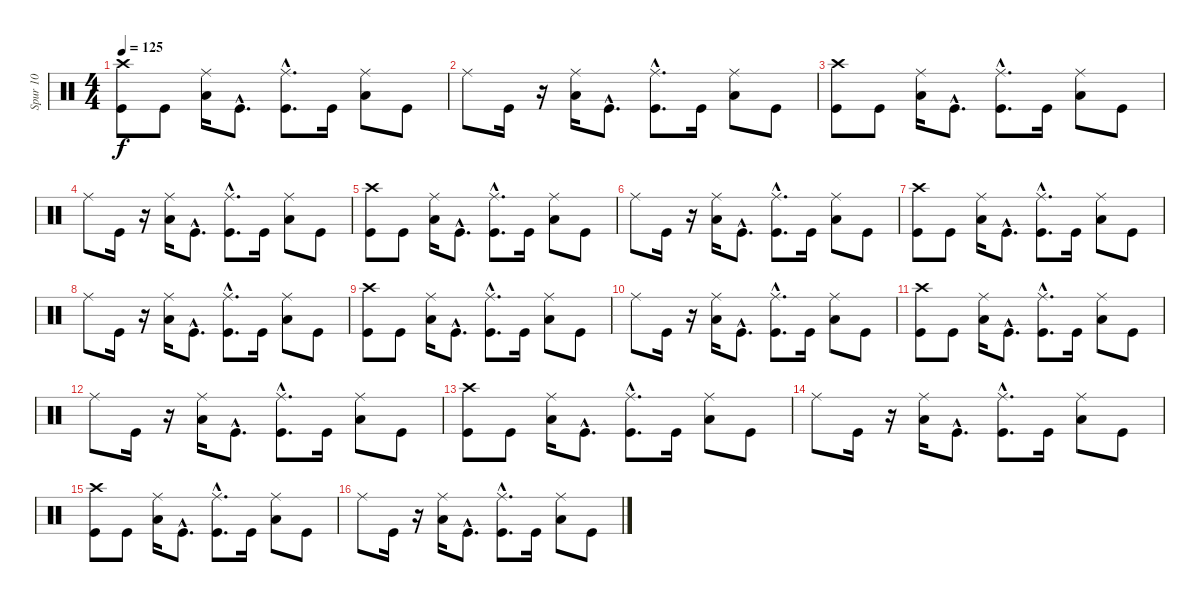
\track ("Spur 10" "Spur 10") {instrument percussion}
\staff {score}
\articulation defaults
\ts (4 4)
\tempo 125
\clef neutral
\ks c
("Crash high (hit)" "Kick (hit)").8{dy f} "Kick (hit)".8 ("Ride (middle)" "Low Tom (hit)").16 "Kick (hit)"{hac}.8{d} ("Kick (hit)"{hac} "Ride (middle)").8{d} "Kick (hit)".16 ("Ride (middle)" "Low Tom (hit)").8 "Kick (hit)".8 |
"Ride (middle)".8 "Kick (hit)".16 r.16 ("Low Tom (hit)" "Ride (middle)").16 "Kick (hit)"{hac}.8{d} ("Kick (hit)"{hac} "Ride (middle)").8{d} "Kick (hit)".16 ("Ride (middle)" "Low Tom (hit)").8 "Kick (hit)".8 |
("Kick (hit)" "Crash high (hit)").8 "Kick (hit)".8 ("Low Tom (hit)" "Ride (middle)").16 "Kick (hit)"{hac}.8{d} ("Ride (middle)" "Kick (hit)"{hac}).8{d} "Kick (hit)".16 ("Ride (middle)" "Low Tom (hit)").8 "Kick (hit)".8 |
"Ride (middle)".8 "Kick (hit)".16 r.16 ("Low Tom (hit)" "Ride (middle)").16 "Kick (hit)"{hac}.8{d} ("Kick (hit)"{hac} "Ride (middle)").8{d} "Kick (hit)".16 ("Low Tom (hit)" "Ride (middle)").8 "Kick (hit)".8 |
("Kick (hit)" "Crash high (hit)").8 "Kick (hit)".8 ("Low Tom (hit)" "Ride (middle)").16 "Kick (hit)"{hac}.8{d} ("Ride (middle)" "Kick (hit)"{hac}).8{d} "Kick (hit)".16 ("Ride (middle)" "Low Tom (hit)").8 "Kick (hit)".8 |
"Ride (middle)".8 "Kick (hit)".16 r.16 ("Ride (middle)" "Low Tom (hit)").16 "Kick (hit)"{hac}.8{d} ("Kick (hit)"{hac} "Ride (middle)").8{d} "Kick (hit)".16 ("Low Tom (hit)" "Ride (middle)").8 "Kick (hit)".8 |
("Crash high (hit)" "Kick (hit)").8 "Kick (hit)".8 ("Low Tom (hit)" "Ride (middle)").16 "Kick (hit)"{hac}.8{d} ("Ride (middle)" "Kick (hit)"{hac}).8{d} "Kick (hit)".16 ("Low Tom (hit)" "Ride (middle)").8 "Kick (hit)".8 |
"Ride (middle)".8 "Kick (hit)".16 r.16 ("Low Tom (hit)" "Ride (middle)").16 "Kick (hit)"{hac}.8{d} ("Kick (hit)"{hac} "Ride (middle)").8{d} "Kick (hit)".16 ("Low Tom (hit)" "Ride (middle)").8 "Kick (hit)".8 |
("Crash high (hit)" "Kick (hit)").8 "Kick (hit)".8 ("Ride (middle)" "Low Tom (hit)").16 "Kick (hit)"{hac}.8{d} ("Kick (hit)"{hac} "Ride (middle)").8{d} "Kick (hit)".16 ("Low Tom (hit)" "Ride (middle)").8 "Kick (hit)".8 |
"Ride (middle)".8 "Kick (hit)".16 r.16 ("Ride (middle)" "Low Tom (hit)").16 "Kick (hit)"{hac}.8{d} ("Kick (hit)"{hac} "Ride (middle)").8{d} "Kick (hit)".16 ("Low Tom (hit)" "Ride (middle)").8 "Kick (hit)".8 |
("Crash high (hit)" "Kick (hit)").8 "Kick (hit)".8 ("Ride (middle)" "Low Tom (hit)").16 "Kick (hit)"{hac}.8{d} ("Kick (hit)"{hac} "Ride (middle)").8{d} "Kick (hit)".16 ("Ride (middle)" "Low Tom (hit)").8 "Kick (hit)".8 |
"Ride (middle)".8 "Kick (hit)".16 r.16 ("Ride (middle)" "Low Tom (hit)").16 "Kick (hit)"{hac}.8{d} ("Kick (hit)"{hac} "Ride (middle)").8{d} "Kick (hit)".16 ("Low Tom (hit)" "Ride (middle)").8 "Kick (hit)".8 |
("Crash high (hit)" "Kick (hit)").8 "Kick (hit)".8 ("Low Tom (hit)" "Ride (middle)").16 "Kick (hit)"{hac}.8{d} ("Kick (hit)"{hac} "Ride (middle)").8{d} "Kick (hit)".16 ("Low Tom (hit)" "Ride (middle)").8 "Kick (hit)".8 |
"Ride (middle)".8 "Kick (hit)".16 r.16 ("Ride (middle)" "Low Tom (hit)").16 "Kick (hit)"{hac}.8{d} ("Ride (middle)" "Kick (hit)"{hac}).8{d} "Kick (hit)".16 ("Ride (middle)" "Low Tom (hit)").8 "Kick (hit)".8 |
("Kick (hit)" "Crash high (hit)").8 "Kick (hit)".8 ("Low Tom (hit)" "Ride (middle)").16 "Kick (hit)"{hac}.8{d} ("Ride (middle)" "Kick (hit)"{hac}).8{d} "Kick (hit)".16 ("Low Tom (hit)" "Ride (middle)").8 "Kick (hit)".8 |
"Ride (middle)".8 "Kick (hit)".16 r.16 ("Ride (middle)" "Low Tom (hit)").16 "Kick (hit)"{hac}.8{d} ("Kick (hit)"{hac} "Ride (middle)").8{d} "Kick (hit)".16 ("Ride (middle)" "Low Tom (hit)").8 "Kick (hit)".8
